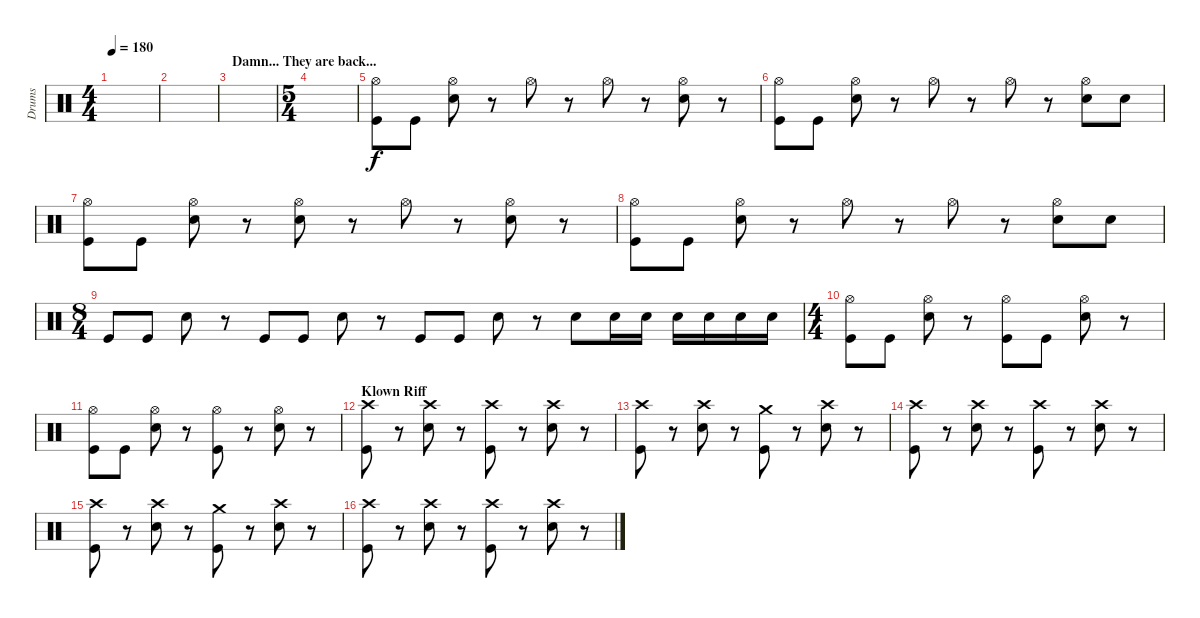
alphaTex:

\track ("Drums" "Drums") {instrument percussion}
\staff {score}
\articulation defaults
\ts (4 4)
\tempo 180
\clef neutral
\ks c
|
|
\section ("" "Damn... They are back...")
|
\ts (5 4)
|
("Hi-Hat (open)" "Kick (hit)").8 "Kick (hit)".8 ("Hi-Hat (open)" "Electric Snare (hit)").8 r.8 "Hi-Hat (open)".8 r.8 "Hi-Hat (open)".8 r.8 ("Hi-Hat (open)" "Electric Snare (hit)").8 r.8 |
("Hi-Hat (open)" "Kick (hit)").8 "Kick (hit)".8 ("Hi-Hat (open)" "Electric Snare (hit)").8 r.8 "Hi-Hat (open)".8 r.8 "Hi-Hat (open)".8 r.8 ("Hi-Hat (open)" "Electric Snare (hit)").8 "Electric Snare (hit)".8 |
("Hi-Hat (open)" "Kick (hit)").8 "Kick (hit)".8 ("Hi-Hat (open)" "Electric Snare (hit)").8 r.8 ("Hi-Hat (open)" "Electric Snare (hit)").8 r.8 "Hi-Hat (open)".8 r.8 ("Hi-Hat (open)" "Electric Snare (hit)").8 r.8 |
("Hi-Hat (open)" "Kick (hit)").8 "Kick (hit)".8 ("Hi-Hat (open)" "Electric Snare (hit)").8 r.8 "Hi-Hat (open)".8 r.8 "Hi-Hat (open)".8 r.8 ("Hi-Hat (open)" "Electric Snare (hit)").8 "Electric Snare (hit)".8 |
\ts (8 4)
"Kick (hit)".8 "Kick (hit)".8 "Electric Snare (hit)".8 r.8 "Kick (hit)".8 "Kick (hit)".8 "Electric Snare (hit)".8 r.8 "Kick (hit)".8 "Kick (hit)".8 "Electric Snare (hit)".8 r.8 "Electric Snare (hit)".8 "Electric Snare (hit)".16 "Electric Snare (hit)".16 "Electric Snare (hit)".16 "Electric Snare (hit)".16 "Electric Snare (hit)".16 "Electric Snare (hit)".16 |
\ts (4 4)
("Hi-Hat (open)" "Kick (hit)").8 "Kick (hit)".8 ("Hi-Hat (open)" "Electric Snare (hit)").8 r.8 ("Hi-Hat (open)" "Kick (hit)").8 "Kick (hit)".8 ("Hi-Hat (open)" "Electric Snare (hit)").8 r.8 |
("Hi-Hat (open)" "Kick (hit)").8 "Kick (hit)".8 ("Hi-Hat (open)" "Electric Snare (hit)").8 r.8 ("Hi-Hat (open)" "Kick (hit)").8 r.8 ("Hi-Hat (open)" "Electric Snare (hit)").8 r.8 |
\section ("" "Klown Riff")
("Crash high (hit)" "Kick (hit)").8 r.8 ("Crash high (hit)" "Electric Snare (hit)").8 r.8 ("Crash high (hit)" "Kick (hit)").8 r.8 ("Crash high (hit)" "Electric Snare (hit)").8 r.8 |
("Crash high (hit)" "Kick (hit)").8 r.8 ("Crash high (hit)" "Electric Snare (hit)").8 r.8 ("Crash medium (hit)" "Kick (hit)").8 r.8 ("Crash high (hit)" "Electric Snare (hit)").8 r.8 |
("Crash high (hit)" "Kick (hit)").8 r.8 ("Crash high (hit)" "Electric Snare (hit)").8 r.8 ("Crash high (hit)" "Kick (hit)").8 r.8 ("Crash high (hit)" "Electric Snare (hit)").8 r.8 |
("Crash high (hit)" "Kick (hit)").8 r.8 ("Crash high (hit)" "Electric Snare (hit)").8 r.8 ("Crash medium (hit)" "Kick (hit)").8 r.8 ("Crash high (hit)" "Electric Snare (hit)").8 r.8 |
("Crash high (hit)" "Kick (hit)").8 r.8 ("Crash high (hit)" "Electric Snare (hit)").8 r.8 ("Crash high (hit)" "Kick (hit)").8 r.8 ("Crash high (hit)" "Electric Snare (hit)").8 r.8
